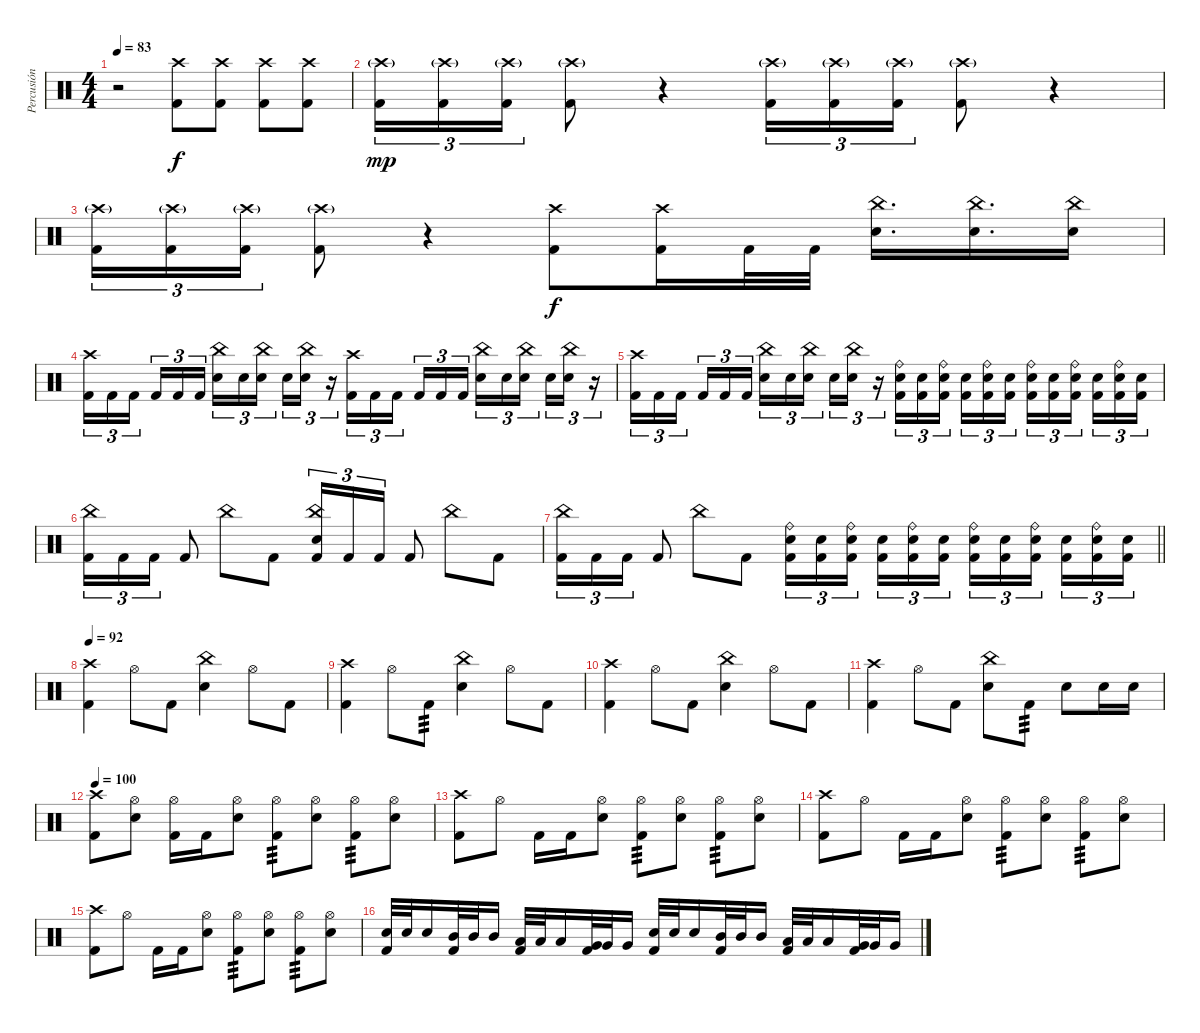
\track ("Percusión" "Percusión") {instrument percussion}
\staff
\articulation defaults
\ts (4 4)
\tempo 83
\clef neutral
\ks c
r.2{dy f} ("Kick (hit) 2" "Crash high (hit)").8 ("Kick (hit) 2" "Crash high (hit)").8 ("Kick (hit) 2" "Crash high (hit)").8 ("Kick (hit) 2" "Crash high (hit)").8 |
("Kick (hit) 2" "Crash high (hit)"{g}).16{tu (3 2) dy mp} ("Kick (hit) 2" "Crash high (hit)"{g}).16{tu (3 2)} ("Kick (hit) 2" "Crash high (hit)"{g}).16{tu (3 2)} ("Kick (hit) 2" "Crash high (hit)"{g}).8 r.4 ("Kick (hit) 2" "Crash high (hit)"{g}).16{tu (3 2)} ("Kick (hit) 2" "Crash high (hit)"{g}).16{tu (3 2)} ("Kick (hit) 2" "Crash high (hit)"{g}).16{tu (3 2)} ("Kick (hit) 2" "Crash high (hit)"{g}).8 r.4 |
("Kick (hit) 2" "Crash high (hit)"{g}).16{tu (3 2)} ("Kick (hit) 2" "Crash high (hit)"{g}).16{tu (3 2)} ("Kick (hit) 2" "Crash high (hit)"{g}).16{tu (3 2)} ("Kick (hit) 2" "Crash high (hit)"{g}).8 r.4 ("Kick (hit) 2" "Crash high (hit)").8{dy f} ("Kick (hit) 2" "Crash high (hit)").16 "Kick (hit) 2".32 "Kick (hit) 2".32 ("China (hit)" "Electric Snare (hit)").16{d} ("China (hit)" "Electric Snare (hit)").16{d} ("China (hit)" "Electric Snare (hit)").16 |
("Kick (hit) 2" "Crash high (hit)").16{tu (3 2)} "Kick (hit) 2".16{tu (3 2)} "Kick (hit) 2".16{tu (3 2) beam splitsecondary} "Kick (hit) 2".16{tu (3 2)} "Kick (hit) 2".16{tu (3 2)} "Kick (hit) 2".16{tu (3 2)} ("Electric Snare (hit)" "China (hit)").16{tu (3 2)} "Electric Snare (hit)".16{tu (3 2)} ("Electric Snare (hit)" "China (hit)").16{tu (3 2) beam splitsecondary} "Electric Snare (hit)".16{tu (3 2)} ("Electric Snare (hit)" "China (hit)").16{tu (3 2)} r.16{tu (3 2)} ("Kick (hit) 2" "Crash high (hit)").16{tu (3 2)} "Kick (hit) 2".16{tu (3 2)} "Kick (hit) 2".16{tu (3 2) beam splitsecondary} "Kick (hit) 2".16{tu (3 2)} "Kick (hit) 2".16{tu (3 2)} "Kick (hit) 2".16{tu (3 2)} ("Electric Snare (hit)" "China (hit)").16{tu (3 2)} "Electric Snare (hit)".16{tu (3 2)} ("Electric Snare (hit)" "China (hit)").16{tu (3 2) beam splitsecondary} "Electric Snare (hit)".16{tu (3 2)} ("Electric Snare (hit)" "China (hit)").16{tu (3 2)} r.16{tu (3 2)} |
("Kick (hit) 2" "Crash high (hit)").16{tu (3 2)} "Kick (hit) 2".16{tu (3 2)} "Kick (hit) 2".16{tu (3 2) beam splitsecondary} "Kick (hit) 2".16{tu (3 2)} "Kick (hit) 2".16{tu (3 2)} "Kick (hit) 2".16{tu (3 2)} ("Electric Snare (hit)" "China (hit)").16{tu (3 2)} "Electric Snare (hit)".16{tu (3 2)} ("Electric Snare (hit)" "China (hit)").16{tu (3 2) beam splitsecondary} "Electric Snare (hit)".16{tu (3 2)} ("Electric Snare (hit)" "China (hit)").16{tu (3 2)} r.16{tu (3 2)} ("Kick (hit) 2" "Electric Snare (hit)" "Ride (bell)").16{tu (3 2)} ("Kick (hit) 2" "Electric Snare (hit)").16{tu (3 2)} ("Kick (hit) 2" "Electric Snare (hit)" "Ride (bell)").16{tu (3 2) beam splitsecondary} ("Kick (hit) 2" "Electric Snare (hit)").16{tu (3 2)} ("Kick (hit) 2" "Electric Snare (hit)" "Ride (bell)").16{tu (3 2)} ("Kick (hit) 2" "Electric Snare (hit)").16{tu (3 2)} ("Kick (hit) 2" "Electric Snare (hit)" "Ride (bell)").16{tu (3 2)} ("Kick (hit) 2" "Electric Snare (hit)").16{tu (3 2)} ("Kick (hit) 2" "Electric Snare (hit)" "Ride (bell)").16{tu (3 2) beam splitsecondary} ("Kick (hit) 2" "Electric Snare (hit)").16{tu (3 2)} ("Kick (hit) 2" "Electric Snare (hit)" "Ride (bell)").16{tu (3 2)} ("Kick (hit) 2" "Electric Snare (hit)").16{tu (3 2)} |
("Kick (hit) 2" "China (hit)").16{tu (3 2)} "Kick (hit) 2".16{tu (3 2)} "Kick (hit) 2".16{tu (3 2)} "Kick (hit) 2".8 "China (hit)".8 "Kick (hit) 2".8 ("Kick (hit) 2" "China (hit)" "Electric Snare (hit)").16{tu (3 2)} "Kick (hit) 2".16{tu (3 2)} "Kick (hit) 2".16{tu (3 2)} "Kick (hit) 2".8 "China (hit)".8 "Kick (hit) 2".8 |
\barLineRight lightlight
("Kick (hit) 2" "China (hit)").16{tu (3 2)} "Kick (hit) 2".16{tu (3 2)} "Kick (hit) 2".16{tu (3 2)} "Kick (hit) 2".8 "China (hit)".8 "Kick (hit) 2".8 ("Kick (hit) 2" "Electric Snare (hit)" "Ride (bell)").16{tu (3 2)} ("Kick (hit) 2" "Electric Snare (hit)").16{tu (3 2)} ("Kick (hit) 2" "Electric Snare (hit)" "Ride (bell)").16{tu (3 2) beam splitsecondary} ("Kick (hit) 2" "Electric Snare (hit)").16{tu (3 2)} ("Kick (hit) 2" "Electric Snare (hit)" "Ride (bell)").16{tu (3 2)} ("Kick (hit) 2" "Electric Snare (hit)").16{tu (3 2)} ("Kick (hit) 2" "Electric Snare (hit)" "Ride (bell)").16{tu (3 2)} ("Kick (hit) 2" "Electric Snare (hit)").16{tu (3 2)} ("Kick (hit) 2" "Electric Snare (hit)" "Ride (bell)").16{tu (3 2) beam splitsecondary} ("Kick (hit) 2" "Electric Snare (hit)").16{tu (3 2)} ("Kick (hit) 2" "Electric Snare (hit)" "Ride (bell)").16{tu (3 2)} ("Kick (hit) 2" "Electric Snare (hit)").16{tu (3 2)} |
\section ("" "")
\tempo 92
("Kick (hit) 2" "Crash high (hit)").4 "Hi-Hat (open)".8 "Kick (hit) 2".8 ("China (hit)" "Electric Snare (hit)").4 "Hi-Hat (open)".8 "Kick (hit) 2".8 |
("Kick (hit) 2" "Crash high (hit)").4 "Hi-Hat (open)".8 "Kick (hit) 2".8{tp 3} ("China (hit)" "Electric Snare (hit)").4 "Hi-Hat (open)".8 "Kick (hit) 2".8 |
("Kick (hit) 2" "Crash high (hit)").4 "Hi-Hat (open)".8 "Kick (hit) 2".8 ("China (hit)" "Electric Snare (hit)").4 "Hi-Hat (open)".8 "Kick (hit) 2".8 |
("Kick (hit) 2" "Crash high (hit)").4 "Hi-Hat (open)".8 "Kick (hit) 2".8 ("China (hit)" "Electric Snare (hit)").8 "Kick (hit) 2".8{tp 3} "Snare (hit) 2".8 "Snare (hit) 2".16 "Snare (hit) 2".16 |
\tempo 100
("Kick (hit) 2" "Crash high (hit)").8 ("Hi-Hat (open)" "Electric Snare (hit)").8 ("Kick (hit) 2" "Hi-Hat (open)").16 "Kick (hit) 2".16 ("Hi-Hat (open)" "Electric Snare (hit)").8 ("Kick (hit) 2" "Hi-Hat (open)").8{tp 3} ("Hi-Hat (open)" "Electric Snare (hit)").8 ("Kick (hit) 2" "Hi-Hat (open)").8{tp 3} ("Hi-Hat (open)" "Electric Snare (hit)").8 |
("Kick (hit) 2" "Crash high (hit)").8 "Hi-Hat (open)".8 "Kick (hit) 2".16 "Kick (hit) 2".16 ("Hi-Hat (open)" "Electric Snare (hit)").8 ("Kick (hit) 2" "Hi-Hat (open)").8{tp 3} ("Hi-Hat (open)" "Electric Snare (hit)").8 ("Kick (hit) 2" "Hi-Hat (open)").8{tp 3} ("Hi-Hat (open)" "Electric Snare (hit)").8 |
("Kick (hit) 2" "Crash high (hit)").8 "Hi-Hat (open)".8 "Kick (hit) 2".16 "Kick (hit) 2".16 ("Hi-Hat (open)" "Electric Snare (hit)").8 ("Kick (hit) 2" "Hi-Hat (open)").8{tp 3} ("Hi-Hat (open)" "Electric Snare (hit)").8 ("Kick (hit) 2" "Hi-Hat (open)").8{tp 3} ("Hi-Hat (open)" "Electric Snare (hit)").8 |
("Kick (hit) 2" "Crash high (hit)").8 "Hi-Hat (open)".8 "Kick (hit) 2".16 "Kick (hit) 2".16 ("Hi-Hat (open)" "Electric Snare (hit)").8 ("Kick (hit) 2" "Hi-Hat (open)").8{tp 3} ("Hi-Hat (open)" "Electric Snare (hit)").8 ("Kick (hit) 2" "Hi-Hat (open)").8{tp 3} ("Hi-Hat (open)" "Electric Snare (hit)").8 |
("Kick (hit) 2" "Snare (hit) 2").32 "Snare (hit) 2".32 "Snare (hit) 2".16 ("Kick (hit) 2" "Mid Tom (hit)").32 "Mid Tom (hit)".32 "Mid Tom (hit)".16 ("Kick (hit) 2" "Low Tom (hit)").32 "Low Tom (hit)".32 "Low Tom (hit)".16 ("Kick (hit) 2" "Very Low Tom (hit)").32 "Very Low Tom (hit)".32 "Very Low Tom (hit)".16 ("Kick (hit) 2" "Snare (hit) 2").32 "Snare (hit) 2".32 "Snare (hit) 2".16 ("Kick (hit) 2" "Mid Tom (hit)").32 "Mid Tom (hit)".32 "Mid Tom (hit)".16 ("Kick (hit) 2" "Low Tom (hit)").32 "Low Tom (hit)".32 "Low Tom (hit)".16 ("Kick (hit) 2" "Very Low Tom (hit)").32 "Very Low Tom (hit)".32 "Very Low Tom (hit)".16
